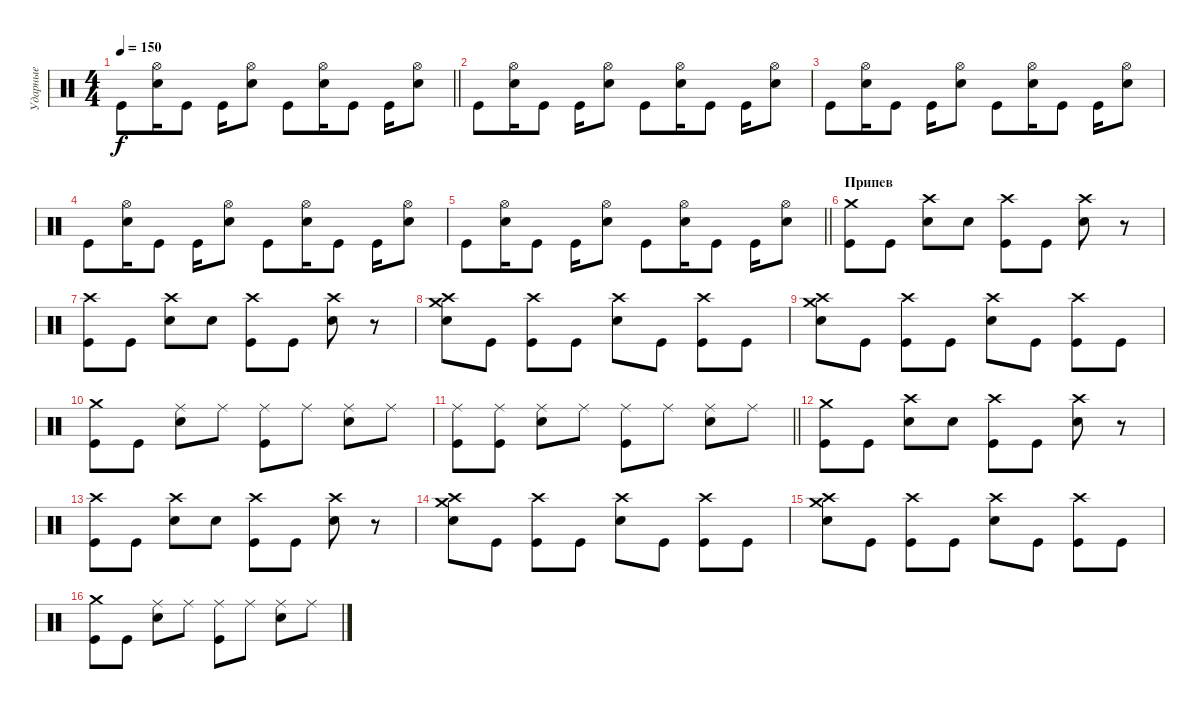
\track ("Ударные" "Ударные") {instrument percussion}
\staff {score}
\articulation defaults
\ts (4 4)
\tempo 150
\clef neutral
\barLineRight lightlight
\ks c "Kick (hit)".8{dy f}
("Hi-Hat (open)" "Electric Snare (hit)").16 "Kick (hit)".8 "Kick (hit)".16 ("Hi-Hat (open)" "Electric Snare (hit)").8 "Kick (hit)".8 ("Hi-Hat (open)" "Electric Snare (hit)").16 "Kick (hit)".8 "Kick (hit)".16 ("Hi-Hat (open)" "Electric Snare (hit)").8 |
"Kick (hit)".8 ("Hi-Hat (open)" "Electric Snare (hit)").16 "Kick (hit)".8 "Kick (hit)".16 ("Hi-Hat (open)" "Electric Snare (hit)").8 "Kick (hit)".8 ("Hi-Hat (open)" "Electric Snare (hit)").16 "Kick (hit)".8 "Kick (hit)".16 ("Hi-Hat (open)" "Electric Snare (hit)").8 |
"Kick (hit)".8 ("Hi-Hat (open)" "Electric Snare (hit)").16 "Kick (hit)".8 "Kick (hit)".16 ("Hi-Hat (open)" "Electric Snare (hit)").8 "Kick (hit)".8 ("Hi-Hat (open)" "Electric Snare (hit)").16 "Kick (hit)".8 "Kick (hit)".16 ("Hi-Hat (open)" "Electric Snare (hit)").8 |
"Kick (hit)".8 ("Hi-Hat (open)" "Electric Snare (hit)").16 "Kick (hit)".8 "Kick (hit)".16 ("Hi-Hat (open)" "Electric Snare (hit)").8 "Kick (hit)".8 ("Hi-Hat (open)" "Electric Snare (hit)").16 "Kick (hit)".8 "Kick (hit)".16 ("Hi-Hat (open)" "Electric Snare (hit)").8 |
\barLineRight lightlight "Kick (hit)".8
("Hi-Hat (open)" "Electric Snare (hit)").16 "Kick (hit)".8 "Kick (hit)".16 ("Hi-Hat (open)" "Electric Snare (hit)").8 "Kick (hit)".8 ("Hi-Hat (open)" "Electric Snare (hit)").16 "Kick (hit)".8 "Kick (hit)".16 ("Hi-Hat (open)" "Electric Snare (hit)").8 |
\section ("" "Припев")
("Crash medium (hit)" "Kick (hit)").8 "Kick (hit)".8 ("Crash high (hit)" "Electric Snare (hit)").8 "Electric Snare (hit)".8 ("Crash high (hit)" "Kick (hit)").8 "Kick (hit)".8 ("Crash high (hit)" "Electric Snare (hit)").8 r.8 |
("Crash high (hit)" "Kick (hit)").8 "Kick (hit)".8 ("Crash high (hit)" "Electric Snare (hit)").8 "Electric Snare (hit)".8 ("Crash high (hit)" "Kick (hit)").8 "Kick (hit)".8 ("Crash high (hit)" "Electric Snare (hit)").8 r.8 |
("Crash medium (hit)" "Crash high (hit)" "Electric Snare (hit)").8 "Kick (hit)".8 ("Crash high (hit)" "Kick (hit)").8 "Kick (hit)".8 ("Crash high (hit)" "Electric Snare (hit)").8 "Kick (hit)".8 ("Crash high (hit)" "Kick (hit)").8 "Kick (hit)".8 |
("Crash medium (hit)" "Crash high (hit)" "Electric Snare (hit)").8 "Kick (hit)".8 ("Crash high (hit)" "Kick (hit)").8 "Kick (hit)".8 ("Crash high (hit)" "Electric Snare (hit)").8 "Kick (hit)".8 ("Crash high (hit)" "Kick (hit)").8 "Kick (hit)".8 |
("Crash medium (hit)" "Kick (hit)").8 "Kick (hit)".8 ("Ride (middle)" "Electric Snare (hit)").8 "Ride (middle)".8 ("Ride (middle)" "Kick (hit)").8 "Ride (middle)".8 ("Ride (middle)" "Electric Snare (hit)").8 "Ride (middle)".8 |
\barLineRight lightlight
("Ride (middle)" "Kick (hit)").8 ("Ride (middle)" "Kick (hit)").8 ("Ride (middle)" "Electric Snare (hit)").8 "Ride (middle)".8 ("Ride (middle)" "Kick (hit)").8 "Ride (middle)".8 ("Ride (middle)" "Electric Snare (hit)").8 "Ride (middle)".8 |
\section ("" " ")
("Crash medium (hit)" "Kick (hit)").8 "Kick (hit)".8 ("Crash high (hit)" "Electric Snare (hit)").8 "Electric Snare (hit)".8 ("Crash high (hit)" "Kick (hit)").8 "Kick (hit)".8 ("Crash high (hit)" "Electric Snare (hit)").8 r.8 |
("Crash high (hit)" "Kick (hit)").8 "Kick (hit)".8 ("Crash high (hit)" "Electric Snare (hit)").8 "Electric Snare (hit)".8 ("Crash high (hit)" "Kick (hit)").8 "Kick (hit)".8 ("Crash high (hit)" "Electric Snare (hit)").8 r.8 |
("Crash medium (hit)" "Crash high (hit)" "Electric Snare (hit)").8 "Kick (hit)".8 ("Crash high (hit)" "Kick (hit)").8 "Kick (hit)".8 ("Crash high (hit)" "Electric Snare (hit)").8 "Kick (hit)".8 ("Crash high (hit)" "Kick (hit)").8 "Kick (hit)".8 |
("Crash medium (hit)" "Crash high (hit)" "Electric Snare (hit)").8 "Kick (hit)".8 ("Crash high (hit)" "Kick (hit)").8 "Kick (hit)".8 ("Crash high (hit)" "Electric Snare (hit)").8 "Kick (hit)".8 ("Crash high (hit)" "Kick (hit)").8 "Kick (hit)".8 |
("Crash medium (hit)" "Kick (hit)").8 "Kick (hit)".8 ("Ride (middle)" "Electric Snare (hit)").8 "Ride (middle)".8 ("Ride (middle)" "Kick (hit)").8 "Ride (middle)".8 ("Ride (middle)" "Electric Snare (hit)").8 "Ride (middle)".8
